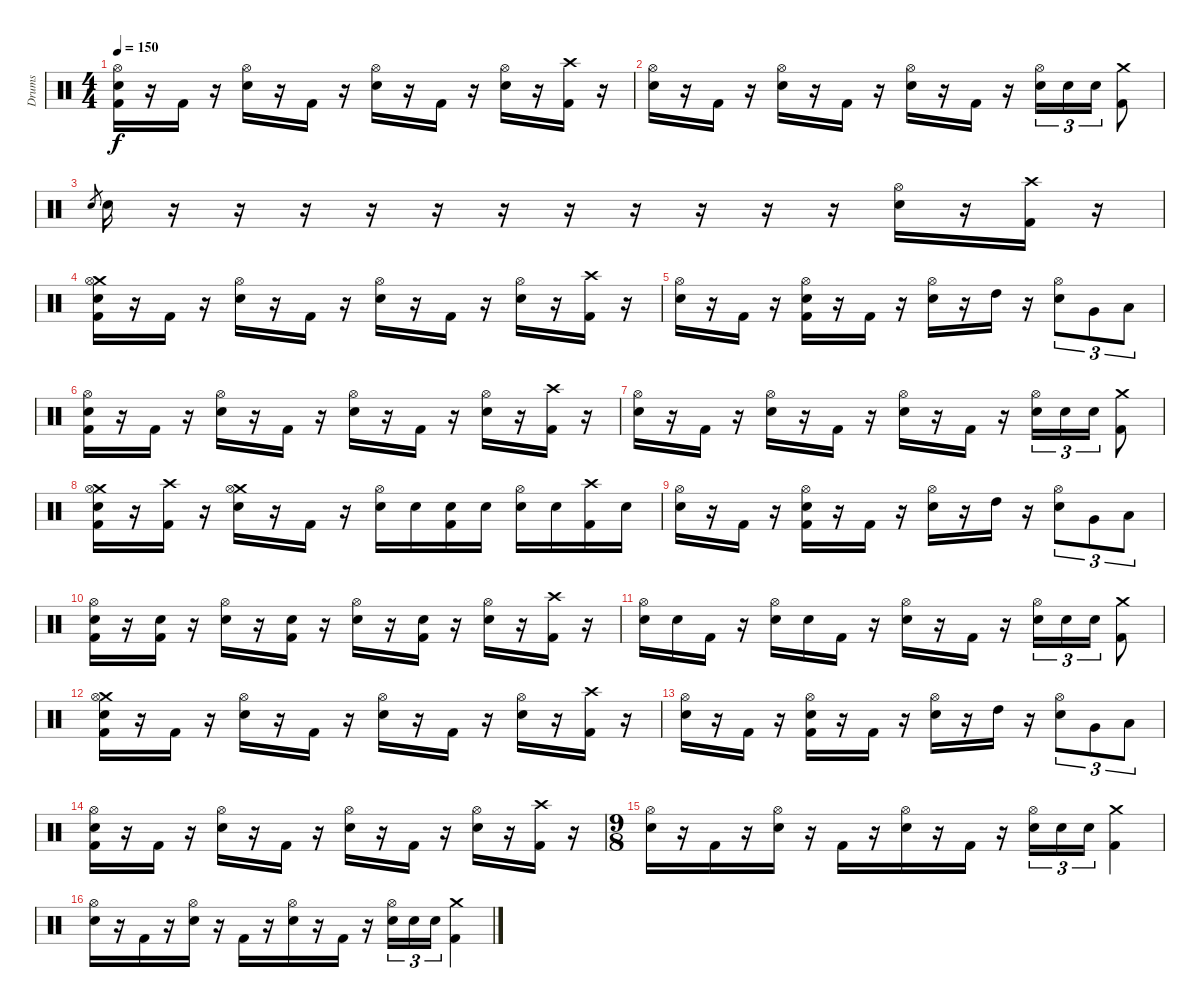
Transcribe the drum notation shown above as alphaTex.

\track ("Drums" "Drums") {instrument percussion}
\staff {score}
\articulation defaults
\ts (4 4)
\tempo 150
\clef neutral
\ks c
("Hi-Hat (open)" "Electric Snare (hit)" "Kick (hit) 2").16{dy f} r.16 "Kick (hit) 2".16 r.16 ("Hi-Hat (open)" "Electric Snare (hit)").16 r.16 "Kick (hit) 2".16 r.16 ("Hi-Hat (open)" "Electric Snare (hit)").16 r.16 "Kick (hit) 2".16 r.16 ("Hi-Hat (open)" "Electric Snare (hit)").16 r.16 ("Crash high (hit)" "Kick (hit) 2").16 r.16 |
("Hi-Hat (open)" "Electric Snare (hit)").16 r.16 "Kick (hit) 2".16 r.16 ("Hi-Hat (open)" "Electric Snare (hit)").16 r.16 "Kick (hit) 2".16 r.16 ("Hi-Hat (open)" "Electric Snare (hit)").16 r.16 "Kick (hit) 2".16 r.16 ("Hi-Hat (open)" "Electric Snare (hit)").16{tu (3 2)} "Electric Snare (hit)".16{tu (3 2)} "Electric Snare (hit)".16{tu (3 2)} ("Crash medium (hit)" "Kick (hit) 2").8 |
"Electric Snare (hit)".8{gr} "Electric Snare (hit)".16 r.16 r.16 r.16 r.16 r.16 r.16 r.16 r.16 r.16 r.16 r.16 ("Hi-Hat (open)" "Electric Snare (hit)").16 r.16 ("Crash high (hit)" "Kick (hit) 2").16 r.16 |
("Crash medium (hit)" "Hi-Hat (open)" "Electric Snare (hit)" "Kick (hit) 2").16 r.16 "Kick (hit) 2".16 r.16 ("Hi-Hat (open)" "Electric Snare (hit)").16 r.16 "Kick (hit) 2".16 r.16 ("Hi-Hat (open)" "Electric Snare (hit)").16 r.16 "Kick (hit) 2".16 r.16 ("Hi-Hat (open)" "Electric Snare (hit)").16 r.16 ("Crash high (hit)" "Kick (hit) 2").16 r.16 |
("Hi-Hat (open)" "Electric Snare (hit)").16 r.16 "Kick (hit) 2".16 r.16 ("Hi-Hat (open)" "Electric Snare (hit)" "Kick (hit) 2").16 r.16 "Kick (hit) 2".16 r.16 ("Hi-Hat (open)" "Electric Snare (hit)").16 r.16 "High Tom (hit)".16 r.16 ("Hi-Hat (open)" "Electric Snare (hit)").8{tu (3 2)} "Very Low Tom (hit)".8{tu (3 2)} "Low Floor Tom (hit)".8{tu (3 2)} |
("Hi-Hat (open)" "Electric Snare (hit)" "Kick (hit) 2").16 r.16 "Kick (hit) 2".16 r.16 ("Hi-Hat (open)" "Electric Snare (hit)").16 r.16 "Kick (hit) 2".16 r.16 ("Hi-Hat (open)" "Electric Snare (hit)").16 r.16 "Kick (hit) 2".16 r.16 ("Hi-Hat (open)" "Electric Snare (hit)").16 r.16 ("Crash high (hit)" "Kick (hit) 2").16 r.16 |
("Hi-Hat (open)" "Electric Snare (hit)").16 r.16 "Kick (hit) 2".16 r.16 ("Hi-Hat (open)" "Electric Snare (hit)").16 r.16 "Kick (hit) 2".16 r.16 ("Hi-Hat (open)" "Electric Snare (hit)").16 r.16 "Kick (hit) 2".16 r.16 ("Hi-Hat (open)" "Electric Snare (hit)").16{tu (3 2)} "Electric Snare (hit)".16{tu (3 2)} "Electric Snare (hit)".16{tu (3 2)} ("Crash medium (hit)" "Kick (hit) 2").8 |
("Crash medium (hit)" "Hi-Hat (open)" "Electric Snare (hit)" "Kick (hit) 2").16 r.16 ("Crash high (hit)" "Kick (hit) 2").16 r.16 ("Crash medium (hit)" "Hi-Hat (open)" "Electric Snare (hit)").16 r.16 "Kick (hit) 2".16 r.16 ("Hi-Hat (open)" "Electric Snare (hit)").16 "Electric Snare (hit)".16 ("Electric Snare (hit)" "Kick (hit) 2").16 "Electric Snare (hit)".16 ("Hi-Hat (open)" "Electric Snare (hit)").16 "Electric Snare (hit)".16 ("Crash high (hit)" "Kick (hit) 2").16 "Electric Snare (hit)".16 |
("Hi-Hat (open)" "Electric Snare (hit)").16 r.16 "Kick (hit) 2".16 r.16 ("Hi-Hat (open)" "Electric Snare (hit)" "Kick (hit) 2").16 r.16 "Kick (hit) 2".16 r.16 ("Hi-Hat (open)" "Electric Snare (hit)").16 r.16 "High Tom (hit)".16 r.16 ("Hi-Hat (open)" "Electric Snare (hit)").8{tu (3 2)} "Very Low Tom (hit)".8{tu (3 2)} "Low Floor Tom (hit)".8{tu (3 2)} |
("Hi-Hat (open)" "Electric Snare (hit)" "Kick (hit) 2").16 r.16 ("Electric Snare (hit)" "Kick (hit) 2").16 r.16 ("Hi-Hat (open)" "Electric Snare (hit)").16 r.16 ("Electric Snare (hit)" "Kick (hit) 2").16 r.16 ("Hi-Hat (open)" "Electric Snare (hit)").16 r.16 ("Electric Snare (hit)" "Kick (hit) 2").16 r.16 ("Hi-Hat (open)" "Electric Snare (hit)").16 r.16 ("Crash high (hit)" "Kick (hit) 2").16 r.16 |
("Hi-Hat (open)" "Electric Snare (hit)").16 "Electric Snare (hit)".16 "Kick (hit) 2".16 r.16 ("Hi-Hat (open)" "Electric Snare (hit)").16 "Electric Snare (hit)".16 "Kick (hit) 2".16 r.16 ("Hi-Hat (open)" "Electric Snare (hit)").16 r.16 "Kick (hit) 2".16 r.16 ("Hi-Hat (open)" "Electric Snare (hit)").16{tu (3 2)} "Electric Snare (hit)".16{tu (3 2)} "Electric Snare (hit)".16{tu (3 2)} ("Crash medium (hit)" "Kick (hit) 2").8 |
("Crash medium (hit)" "Hi-Hat (open)" "Electric Snare (hit)" "Kick (hit) 2").16 r.16 "Kick (hit) 2".16 r.16 ("Hi-Hat (open)" "Electric Snare (hit)").16 r.16 "Kick (hit) 2".16 r.16 ("Hi-Hat (open)" "Electric Snare (hit)").16 r.16 "Kick (hit) 2".16 r.16 ("Hi-Hat (open)" "Electric Snare (hit)").16 r.16 ("Crash high (hit)" "Kick (hit) 2").16 r.16 |
("Hi-Hat (open)" "Electric Snare (hit)").16 r.16 "Kick (hit) 2".16 r.16 ("Hi-Hat (open)" "Electric Snare (hit)" "Kick (hit) 2").16 r.16 "Kick (hit) 2".16 r.16 ("Hi-Hat (open)" "Electric Snare (hit)").16 r.16 "High Tom (hit)".16 r.16 ("Hi-Hat (open)" "Electric Snare (hit)").8{tu (3 2)} "Very Low Tom (hit)".8{tu (3 2)} "Low Floor Tom (hit)".8{tu (3 2)} |
("Hi-Hat (open)" "Electric Snare (hit)" "Kick (hit) 2").16 r.16 "Kick (hit) 2".16 r.16 ("Hi-Hat (open)" "Electric Snare (hit)").16 r.16 "Kick (hit) 2".16 r.16 ("Hi-Hat (open)" "Electric Snare (hit)").16 r.16 "Kick (hit) 2".16 r.16 ("Hi-Hat (open)" "Electric Snare (hit)").16 r.16 ("Crash high (hit)" "Kick (hit) 2").16 r.16 |
\ts (9 8)
("Hi-Hat (open)" "Electric Snare (hit)").16 r.16 "Kick (hit) 2".16 r.16 ("Hi-Hat (open)" "Electric Snare (hit)").16 r.16 "Kick (hit) 2".16 r.16 ("Hi-Hat (open)" "Electric Snare (hit)").16 r.16 "Kick (hit) 2".16 r.16 ("Hi-Hat (open)" "Electric Snare (hit)").16{tu (3 2)} "Electric Snare (hit)".16{tu (3 2)} "Electric Snare (hit)".16{tu (3 2)} ("Crash medium (hit)" "Kick (hit) 2").4 |
("Hi-Hat (open)" "Electric Snare (hit)").16 r.16 "Kick (hit) 2".16 r.16 ("Hi-Hat (open)" "Electric Snare (hit)").16 r.16 "Kick (hit) 2".16 r.16 ("Hi-Hat (open)" "Electric Snare (hit)").16 r.16 "Kick (hit) 2".16 r.16 ("Hi-Hat (open)" "Electric Snare (hit)").16{tu (3 2)} "Electric Snare (hit)".16{tu (3 2)} "Electric Snare (hit)".16{tu (3 2)} ("Crash medium (hit)" "Kick (hit) 2").4
